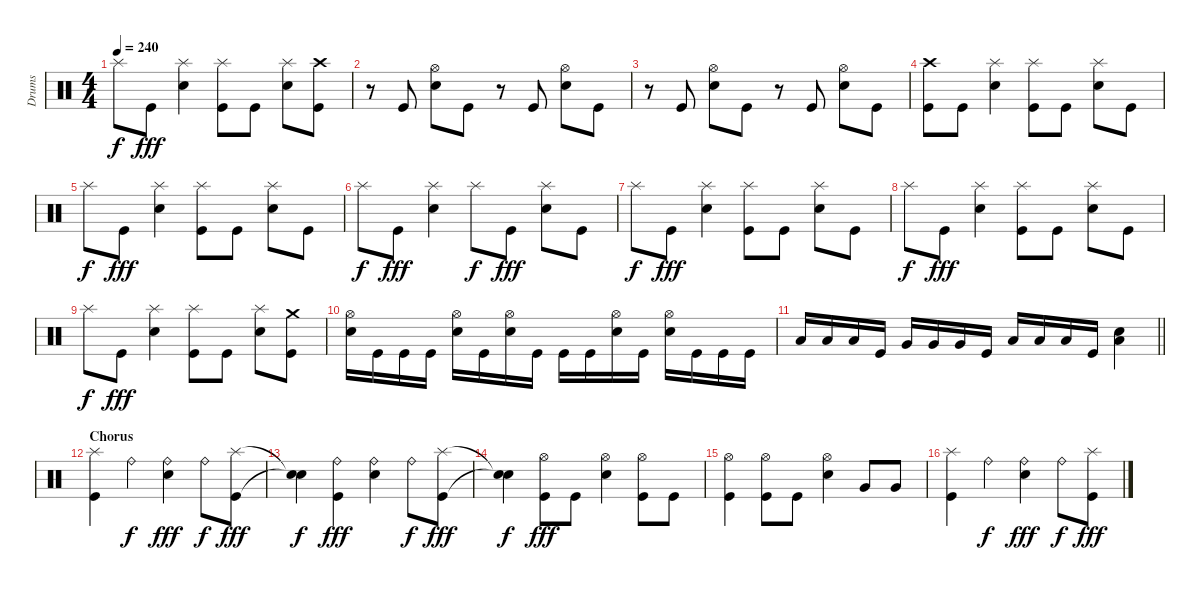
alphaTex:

\track ("Drums" "Drums") {instrument percussion}
\staff {score}
\articulation defaults
\ts (4 4)
\tempo 240
\clef neutral
\ks c "Splash (hit)".8{dy f} "Kick (hit)".8{dy fff}
("Electric Snare (hit)" "Splash (hit)").4 ("Kick (hit)" "Splash (hit)").8 "Kick (hit)".8 ("Electric Snare (hit)" "Splash (hit)").8 ("Kick (hit)" "Crash high (hit)").8 |
r.8 "Kick (hit)".8 ("Electric Snare (hit)" "Hi-Hat (open)").8 "Kick (hit)".8 r.8 "Kick (hit)".8 ("Electric Snare (hit)" "Hi-Hat (open)").8 "Kick (hit)".8 |
r.8 "Kick (hit)".8 ("Electric Snare (hit)" "Hi-Hat (open)").8 "Kick (hit)".8 r.8 "Kick (hit)".8 ("Electric Snare (hit)" "Hi-Hat (open)").8 "Kick (hit)".8 |
("Kick (hit)" "Crash high (hit)").8 "Kick (hit)".8 ("Electric Snare (hit)" "Splash (hit)").4 ("Kick (hit)" "Splash (hit)").8 "Kick (hit)".8 ("Electric Snare (hit)" "Splash (hit)").8 "Kick (hit)".8 |
"Splash (hit)".8{dy f} "Kick (hit)".8{dy fff} ("Electric Snare (hit)" "Splash (hit)").4 ("Kick (hit)" "Splash (hit)").8 "Kick (hit)".8 ("Electric Snare (hit)" "Splash (hit)").8 "Kick (hit)".8 |
"Splash (hit)".8{dy f} "Kick (hit)".8{dy fff} ("Electric Snare (hit)" "Splash (hit)").4 "Splash (hit)".8{dy f} "Kick (hit)".8{dy fff} ("Electric Snare (hit)" "Splash (hit)").8 "Kick (hit)".8 |
"Splash (hit)".8{dy f} "Kick (hit)".8{dy fff} ("Electric Snare (hit)" "Splash (hit)").4 ("Kick (hit)" "Splash (hit)").8 "Kick (hit)".8 ("Electric Snare (hit)" "Splash (hit)").8 "Kick (hit)".8 |
"Splash (hit)".8{dy f} "Kick (hit)".8{dy fff} ("Electric Snare (hit)" "Splash (hit)").4 ("Kick (hit)" "Splash (hit)").8 "Kick (hit)".8 ("Electric Snare (hit)" "Splash (hit)").8 "Kick (hit)".8 |
"Splash (hit)".8{dy f} "Kick (hit)".8{dy fff} ("Electric Snare (hit)" "Splash (hit)").4 ("Kick (hit)" "Splash (hit)").8 "Kick (hit)".8 ("Electric Snare (hit)" "Splash (hit)").8 ("Kick (hit)" "Crash medium (hit)").8 |
("Electric Snare (hit)" "Hi-Hat (open)").16 "Kick (hit)".16 "Kick (hit)".16 "Kick (hit)".16 ("Electric Snare (hit)" "Hi-Hat (open)").16 "Kick (hit)".16 ("Electric Snare (hit)" "Hi-Hat (open)").16 "Kick (hit)".16 "Kick (hit)".16 "Kick (hit)".16 ("Electric Snare (hit)" "Hi-Hat (open)").16 "Kick (hit)".16 ("Electric Snare (hit)" "Hi-Hat (open)").16 "Kick (hit)".16 "Kick (hit)".16 "Kick (hit)".16 |
\barLineRight lightlight "Low Tom (hit)".16{balance 0} "Low Tom (hit)".16 "Low Tom (hit)".16 "Kick (hit)".16{balance 6} "Very Low Tom (hit)".16{balance 12} "Very Low Tom (hit)".16 "Very Low Tom (hit)".16 "Kick (hit)".16 "Low Floor Tom (hit)".16{balance 16} "Low Floor Tom (hit)".16 "Low Floor Tom (hit)".16 "Kick (hit)".16
("Electric Snare (hit)" "Low Floor Tom (hit)").4{balance 8} |
\section ("" "Chorus")
("Kick (hit)" "Splash (hit)").4 "Ride (bell)".4{dy f} ("Electric Snare (hit)" "Ride (bell)").4{dy fff} "Ride (bell)".8{dy f} ("Kick (hit)" "Splash (hit)").8{dy fff} |
("Snare (hit)"{t} "Snare (hit)"{t}).4{dy f} ("Kick (hit)" "Ride (bell)").4{dy fff} ("Electric Snare (hit)" "Ride (bell)").4 "Ride (bell)".8{dy f} ("Kick (hit)" "Splash (hit)").8{dy fff} |
("Snare (hit)"{t} "Snare (hit)"{t}).4{dy f} ("Kick (hit)" "Hi-Hat (open)").8{dy fff} "Kick (hit)".8 ("Electric Snare (hit)" "Hi-Hat (open)").4 ("Kick (hit)" "Hi-Hat (open)").8 "Kick (hit)".8 |
("Kick (hit)" "Hi-Hat (open)").4 ("Kick (hit)" "Hi-Hat (open)").8 "Kick (hit)".8 ("Electric Snare (hit)" "Hi-Hat (open)").4 "Very Low Tom (hit)".8 "Very Low Tom (hit)".8 |
("Kick (hit)" "Splash (hit)").4 "Ride (bell)".4{dy f} ("Electric Snare (hit)" "Ride (bell)").4{dy fff} "Ride (bell)".8{dy f} ("Kick (hit)" "Splash (hit)").8{dy fff}
